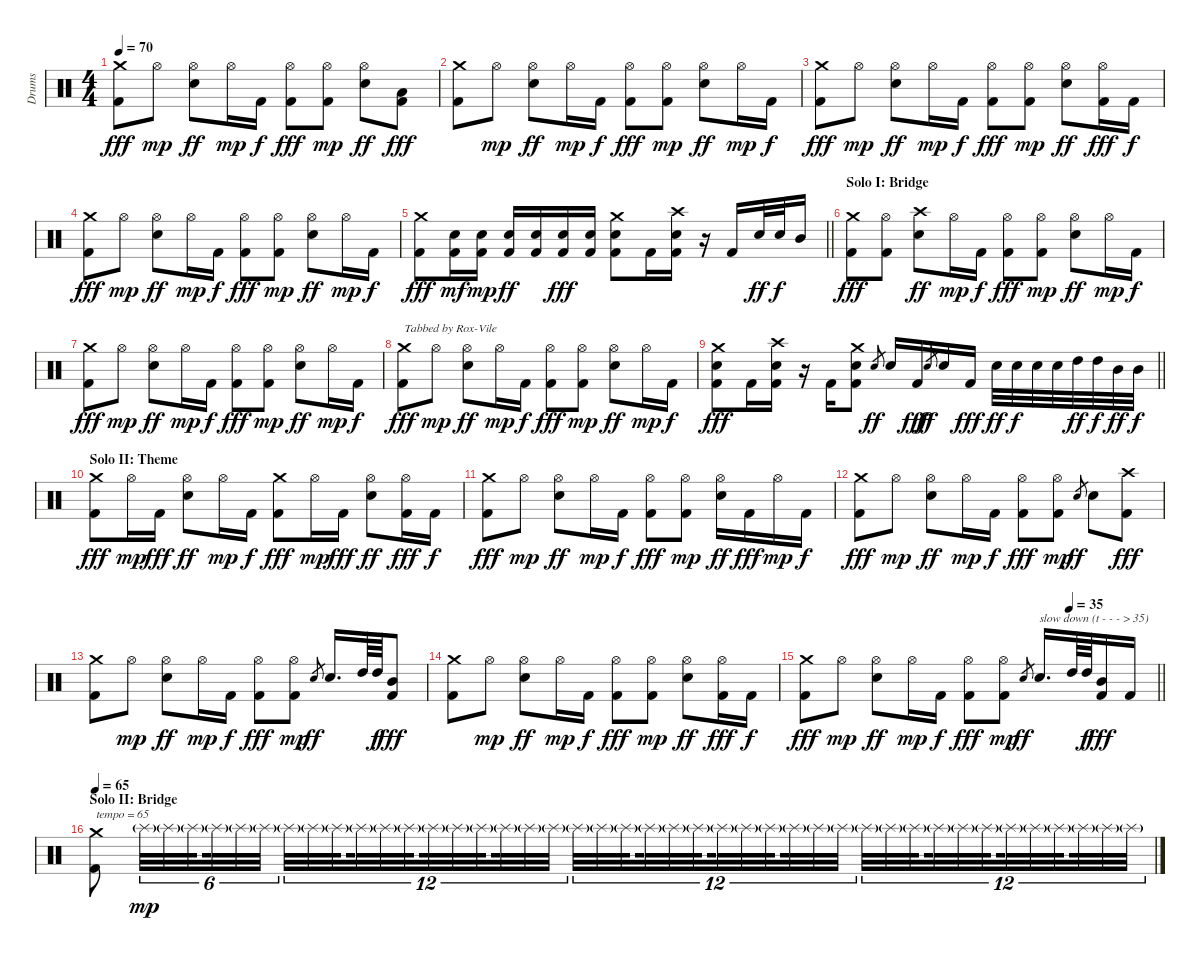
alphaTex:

\track ("Drums" "Drums") {instrument percussion}
\staff {score}
\articulation defaults
\ts (4 4)
\tempo 70
\clef neutral
\ks c
("Crash medium (hit)" "Kick (hit) 2").8{dy fff} "Hi-Hat (open)".8{dy mp} ("Hi-Hat (open)" "Snare (hit) 2").8{dy ff} "Hi-Hat (open)".16{dy mp} "Kick (hit) 2".16{dy f} ("Hi-Hat (open)" "Kick (hit) 2").8{dy fff} ("Hi-Hat (open)" "Kick (hit) 2").8{dy mp} ("Hi-Hat (open)" "Snare (hit) 2").8{dy ff} ("Low Tom (hit)" "Kick (hit) 2").8{dy fff} |
("Crash medium (hit)" "Kick (hit) 2").8 "Hi-Hat (open)".8{dy mp} ("Hi-Hat (open)" "Snare (hit) 2").8{dy ff} "Hi-Hat (open)".16{dy mp} "Kick (hit) 2".16{dy f} ("Hi-Hat (open)" "Kick (hit) 2").8{dy fff} ("Hi-Hat (open)" "Kick (hit) 2").8{dy mp} ("Hi-Hat (open)" "Snare (hit) 2").8{dy ff} "Hi-Hat (open)".16{dy mp} "Kick (hit) 2".16{dy f} |
("Crash medium (hit)" "Kick (hit) 2").8{dy fff} "Hi-Hat (open)".8{dy mp} ("Hi-Hat (open)" "Snare (hit) 2").8{dy ff} "Hi-Hat (open)".16{dy mp} "Kick (hit) 2".16{dy f} ("Hi-Hat (open)" "Kick (hit) 2").8{dy fff} ("Hi-Hat (open)" "Kick (hit) 2").8{dy mp} ("Hi-Hat (open)" "Snare (hit) 2").8{dy ff} ("Hi-Hat (open)" "Kick (hit) 2").16{dy fff} "Kick (hit) 2".16{dy f} |
("Crash medium (hit)" "Kick (hit) 2").8{dy fff} "Hi-Hat (open)".8{dy mp} ("Hi-Hat (open)" "Snare (hit) 2").8{dy ff} "Hi-Hat (open)".16{dy mp} "Kick (hit) 2".16{dy f} ("Hi-Hat (open)" "Kick (hit) 2").8{dy fff} ("Hi-Hat (open)" "Kick (hit) 2").8{dy mp} ("Hi-Hat (open)" "Snare (hit) 2").8{dy ff} "Hi-Hat (open)".16{dy mp} "Kick (hit) 2".16{dy f} |
\barLineRight lightlight
("Crash medium (hit)" "Kick (hit) 2").8{dy fff} ("Snare (hit) 2" "Kick (hit) 2").16{dy mf} ("Snare (hit) 2" "Kick (hit) 2").16{dy mp} ("Snare (hit) 2" "Kick (hit) 2").16{dy ff} ("Snare (hit) 2" "Kick (hit) 2").16 ("Snare (hit) 2" "Kick (hit) 2").16{dy fff} ("Snare (hit) 2" "Kick (hit) 2").16 ("Crash medium (hit)" "Snare (hit) 2" "Kick (hit) 2").8 "Kick (hit) 2".16 ("Crash high (hit)" "Snare (hit) 2" "Kick (hit) 2").16 r.16 "Kick (hit) 2".16 "Snare (hit) 2".32{dy ff} "Snare (hit) 2".32{dy f} "Mid Tom (hit)".16 |
\section ("" "Solo I: Bridge")
("Crash medium (hit)" "Kick (hit) 2").8{dy fff} ("Hi-Hat (open)" "Kick (hit) 2").8 ("Crash high (hit)" "Snare (hit) 2").8{dy ff} "Hi-Hat (open)".16{dy mp} "Kick (hit) 2".16{dy f} ("Hi-Hat (open)" "Kick (hit) 2").8{dy fff} ("Hi-Hat (open)" "Kick (hit) 2").8{dy mp} ("Hi-Hat (open)" "Snare (hit) 2").8{dy ff} "Hi-Hat (open)".16{dy mp} "Kick (hit) 2".16{dy f} |
("Crash medium (hit)" "Kick (hit) 2").8{dy fff} "Hi-Hat (open)".8{dy mp} ("Hi-Hat (open)" "Snare (hit) 2").8{dy ff} "Hi-Hat (open)".16{dy mp} "Kick (hit) 2".16{dy f} ("Hi-Hat (open)" "Kick (hit) 2").8{dy fff} ("Hi-Hat (open)" "Kick (hit) 2").8{dy mp} ("Hi-Hat (open)" "Snare (hit) 2").8{dy ff} "Hi-Hat (open)".16{dy mp} "Kick (hit) 2".16{dy f} |
("Crash medium (hit)" "Kick (hit) 2").8{txt "Tabbed by Rox-Vile" dy fff} "Hi-Hat (open)".8{dy mp} ("Hi-Hat (open)" "Snare (hit) 2").8{dy ff} "Hi-Hat (open)".16{dy mp} "Kick (hit) 2".16{dy f} ("Hi-Hat (open)" "Kick (hit) 2").8{dy fff} ("Hi-Hat (open)" "Kick (hit) 2").8{dy mp} ("Hi-Hat (open)" "Snare (hit) 2").8{dy ff} "Hi-Hat (open)".16{dy mp} "Kick (hit) 2".16{dy f} |
\barLineRight lightlight
("Crash medium (hit)" "Snare (hit) 2" "Kick (hit) 2").8{dy fff} "Kick (hit) 2".16 ("Crash high (hit)" "Snare (hit) 2" "Kick (hit) 2").16 r.16 "Kick (hit) 2".16 ("Crash medium (hit)" "Snare (hit) 2" "Kick (hit) 2").8 "Snare (hit) 2".8{gr dy ff} "Snare (hit) 2".16 "Kick (hit) 2".16{dy fff} "Snare (hit) 2".8{gr dy ff} "Snare (hit) 2".16 "Kick (hit) 2".16{dy fff} "Snare (hit) 2".32{dy ff} "Snare (hit) 2".32{dy f} "Snare (hit) 2".32 "Snare (hit) 2".32 "High Tom (hit)".32{dy ff} "High Tom (hit)".32{dy f} "Mid Tom (hit)".32{dy ff} "Mid Tom (hit)".32{dy f} |
\section ("" "Solo II: Theme")
("Crash medium (hit)" "Kick (hit) 2").8{dy fff} "Hi-Hat (open)".16{dy mp} "Kick (hit) 2".16{dy fff} ("Hi-Hat (open)" "Snare (hit) 2").8{dy ff} "Hi-Hat (open)".16{dy mp} "Kick (hit) 2".16{dy f} ("Crash medium (hit)" "Kick (hit) 2").8{dy fff} "Hi-Hat (open)".16{dy mp} "Kick (hit) 2".16{dy fff} ("Hi-Hat (open)" "Snare (hit) 2").8{dy ff} ("Hi-Hat (open)" "Kick (hit) 2").16{dy fff} "Kick (hit) 2".16{dy f} |
("Crash medium (hit)" "Kick (hit) 2").8{dy fff} "Hi-Hat (open)".8{dy mp} ("Hi-Hat (open)" "Snare (hit) 2").8{dy ff} "Hi-Hat (open)".16{dy mp} "Kick (hit) 2".16{dy f} ("Hi-Hat (open)" "Kick (hit) 2").8{dy fff} ("Hi-Hat (open)" "Kick (hit) 2").8{dy mp} ("Hi-Hat (open)" "Snare (hit) 2").16{dy ff} "Kick (hit) 2".16{dy fff} "Hi-Hat (open)".16{dy mp} "Kick (hit) 2".16{dy f} |
("Crash medium (hit)" "Kick (hit) 2").8{dy fff} "Hi-Hat (open)".8{dy mp} ("Hi-Hat (open)" "Snare (hit) 2").8{dy ff} "Hi-Hat (open)".16{dy mp} "Kick (hit) 2".16{dy f} ("Hi-Hat (open)" "Kick (hit) 2").8{dy fff} ("Hi-Hat (open)" "Kick (hit) 2").8{dy mp} "Snare (hit) 2".8{gr dy ff} "Snare (hit) 2".8 ("Crash high (hit)" "Kick (hit) 2").8{dy fff} |
("Crash medium (hit)" "Kick (hit) 2").8 "Hi-Hat (open)".8{dy mp} ("Hi-Hat (open)" "Snare (hit) 2").8{dy ff} "Hi-Hat (open)".16{dy mp} "Kick (hit) 2".16{dy f} ("Hi-Hat (open)" "Kick (hit) 2").8{dy fff} ("Hi-Hat (open)" "Kick (hit) 2").8{dy mp} "Snare (hit) 2".8{gr dy ff} "Snare (hit) 2".16{d} "High Tom (hit)".64 "High Tom (hit)".64{dy f} ("Mid Tom (hit)" "Kick (hit) 2").8{dy fff} |
("Crash medium (hit)" "Kick (hit) 2").8 "Hi-Hat (open)".8{dy mp} ("Hi-Hat (open)" "Snare (hit) 2").8{dy ff} "Hi-Hat (open)".16{dy mp} "Kick (hit) 2".16{dy f} ("Hi-Hat (open)" "Kick (hit) 2").8{dy fff} ("Hi-Hat (open)" "Kick (hit) 2").8{dy mp} ("Hi-Hat (open)" "Snare (hit) 2").8{dy ff} ("Hi-Hat (open)" "Kick (hit) 2").16{dy fff} "Kick (hit) 2".16{dy f} |
\tempo (35 0.75)
\barLineRight lightlight
("Crash medium (hit)" "Kick (hit) 2").8{dy fff} "Hi-Hat (open)".8{dy mp} ("Hi-Hat (open)" "Snare (hit) 2").8{dy ff} "Hi-Hat (open)".16{dy mp} "Kick (hit) 2".16{dy f} ("Hi-Hat (open)" "Kick (hit) 2").8{dy fff} ("Hi-Hat (open)" "Kick (hit) 2").8{dy mp} "Snare (hit) 2".8{gr dy ff} "Snare (hit) 2".16{d txt "slow down (t - - - > 35)"} "High Tom (hit)".64 "High Tom (hit)".64{dy f} ("Mid Tom (hit)" "Kick (hit) 2").16{dy fff} "Kick (hit) 2".16 |
\section ("" "Solo II: Bridge")
\tempo 65
("Crash medium (hit)" "Kick (hit) 2").8{txt "tempo = 65"} "Splash (hit)"{g}.32{tu (6 4) dy mp} "Splash (hit)"{g}.32{tu (6 4)} "Splash (hit)"{g}.32{tu (6 4) beam splitsecondary} "Splash (hit)"{g}.32{tu (6 4)} "Splash (hit)"{g}.32{tu (6 4)} "Splash (hit)"{g}.32{tu (6 4)} "Splash (hit)"{g}.32{tu (12 8)} "Splash (hit)"{g}.32{tu (12 8)} "Splash (hit)"{g}.32{tu (12 8) beam splitsecondary} "Splash (hit)"{g}.32{tu (12 8)} "Splash (hit)"{g}.32{tu (12 8)} "Splash (hit)"{g}.32{tu (12 8) beam splitsecondary} "Splash (hit)"{g}.32{tu (12 8)} "Splash (hit)"{g}.32{tu (12 8)} "Splash (hit)"{g}.32{tu (12 8) beam splitsecondary} "Splash (hit)"{g}.32{tu (12 8)} "Splash (hit)"{g}.32{tu (12 8)} "Splash (hit)"{g}.32{tu (12 8)} "Splash (hit)"{g}.32{tu (12 8)} "Splash (hit)"{g}.32{tu (12 8)} "Splash (hit)"{g}.32{tu (12 8) beam splitsecondary} "Splash (hit)"{g}.32{tu (12 8)} "Splash (hit)"{g}.32{tu (12 8)} "Splash (hit)"{g}.32{tu (12 8) beam splitsecondary} "Splash (hit)"{g}.32{tu (12 8)} "Splash (hit)"{g}.32{tu (12 8)} "Splash (hit)"{g}.32{tu (12 8) beam splitsecondary} "Splash (hit)"{g}.32{tu (12 8)} "Splash (hit)"{g}.32{tu (12 8)} "Splash (hit)"{g}.32{tu (12 8)} "Splash (hit)"{g}.32{tu (12 8)} "Splash (hit)"{g}.32{tu (12 8)} "Splash (hit)"{g}.32{tu (12 8) beam splitsecondary} "Splash (hit)"{g}.32{tu (12 8)} "Splash (hit)"{g}.32{tu (12 8)} "Splash (hit)"{g}.32{tu (12 8) beam splitsecondary} "Splash (hit)"{g}.32{tu (12 8)} "Splash (hit)"{g}.32{tu (12 8)} "Splash (hit)"{g}.32{tu (12 8) beam splitsecondary} "Splash (hit)"{g}.32{tu (12 8)} "Splash (hit)"{g}.32{tu (12 8)} "Splash (hit)"{g}.32{tu (12 8)}
